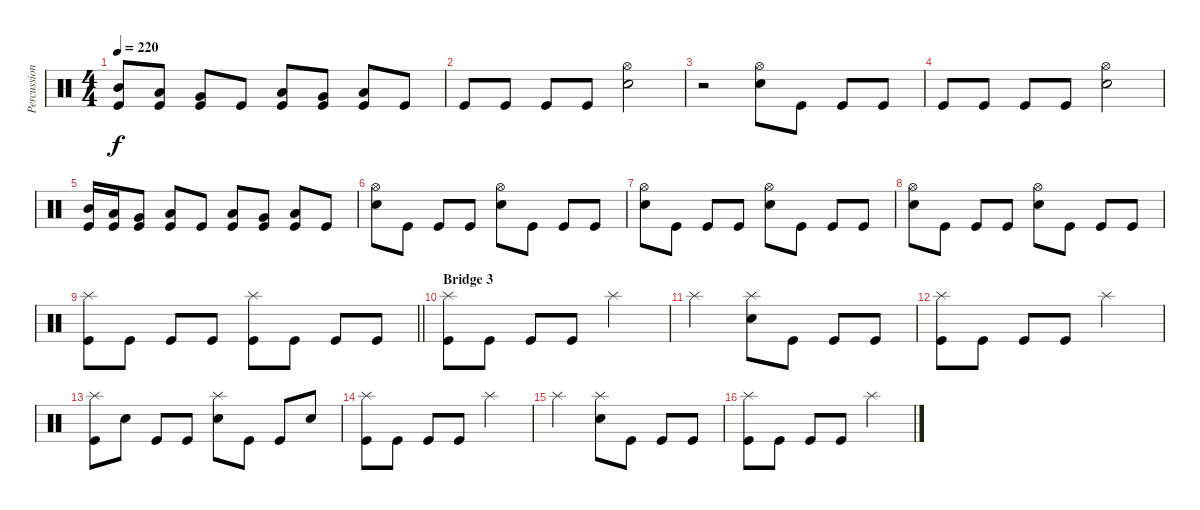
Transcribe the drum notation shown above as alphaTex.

\track ("Percussion" "Percussion") {instrument percussion}
\staff {score}
\articulation defaults
\ts (4 4)
\tempo 220
\clef neutral
\ks c
("Kick (hit)" "Mid Tom (hit)").8{dy f} ("Kick (hit)" "Low Tom (hit)").8 ("Kick (hit)" "Very Low Tom (hit)").8 "Kick (hit)".8 ("Kick (hit)" "Low Tom (hit)").8 ("Kick (hit)" "Very Low Tom (hit)").8 ("Kick (hit)" "Low Floor Tom (hit)").8 "Kick (hit)".8 |
"Kick (hit)".8 "Kick (hit)".8 "Kick (hit)".8 "Kick (hit)".8 ("Snare (hit) 2" "Hi-Hat (open)").2 |
r.2 ("Snare (hit) 2" "Hi-Hat (open)").8 "Kick (hit)".8 "Kick (hit)".8 "Kick (hit)".8 |
"Kick (hit)".8 "Kick (hit)".8 "Kick (hit)".8 "Kick (hit)".8 ("Snare (hit) 2" "Hi-Hat (open)").2 |
("Kick (hit)" "Mid Tom (hit)").16 ("Kick (hit)" "Low Tom (hit)").16 ("Kick (hit)" "Very Low Tom (hit)").8 ("Kick (hit)" "Low Floor Tom (hit)").8 "Kick (hit)".8 ("Kick (hit)" "Low Tom (hit)").8 ("Kick (hit)" "Very Low Tom (hit)").8 ("Kick (hit)" "Low Floor Tom (hit)").8 "Kick (hit)".8 |
("Snare (hit) 2" "Hi-Hat (open)").8 "Kick (hit)".8 "Kick (hit)".8 "Kick (hit)".8 ("Snare (hit) 2" "Hi-Hat (open)").8 "Kick (hit)".8 "Kick (hit)".8 "Kick (hit)".8 |
("Snare (hit) 2" "Hi-Hat (open)").8 "Kick (hit)".8 "Kick (hit)".8 "Kick (hit)".8 ("Snare (hit) 2" "Hi-Hat (open)").8 "Kick (hit)".8 "Kick (hit)".8 "Kick (hit)".8 |
("Snare (hit) 2" "Hi-Hat (open)").8 "Kick (hit)".8 "Kick (hit)".8 "Kick (hit)".8 ("Snare (hit) 2" "Hi-Hat (open)").8 "Kick (hit)".8 "Kick (hit)".8 "Kick (hit)".8 |
\barLineRight lightlight
("Kick (hit)" "Splash (hit)").8 "Kick (hit)".8 "Kick (hit)".8 "Kick (hit)".8 ("Kick (hit)" "Splash (hit)").8 "Kick (hit)".8 "Kick (hit)".8 "Kick (hit)".8 |
\section ("" "Bridge 3")
("Kick (hit)" "Splash (hit)").8 "Kick (hit)".8 "Kick (hit)".8 "Kick (hit)".8 "Splash (hit)".2 |
"Splash (hit)".2 ("Snare (hit) 2" "Splash (hit)").8 "Kick (hit)".8 "Kick (hit)".8 "Kick (hit)".8 |
("Kick (hit)" "Splash (hit)").8 "Kick (hit)".8 "Kick (hit)".8 "Kick (hit)".8 "Splash (hit)".2 |
("Kick (hit)" "Splash (hit)").8 "Snare (hit) 2".8 "Kick (hit)".8 "Kick (hit)".8 ("Snare (hit) 2" "Splash (hit)").8 "Kick (hit)".8 "Kick (hit)".8 "Snare (hit) 2".8 |
("Kick (hit)" "Splash (hit)").8 "Kick (hit)".8 "Kick (hit)".8 "Kick (hit)".8 "Splash (hit)".2 |
"Splash (hit)".2 ("Snare (hit) 2" "Splash (hit)").8 "Kick (hit)".8 "Kick (hit)".8 "Kick (hit)".8 |
("Kick (hit)" "Splash (hit)").8 "Kick (hit)".8 "Kick (hit)".8 "Kick (hit)".8 "Splash (hit)".2
